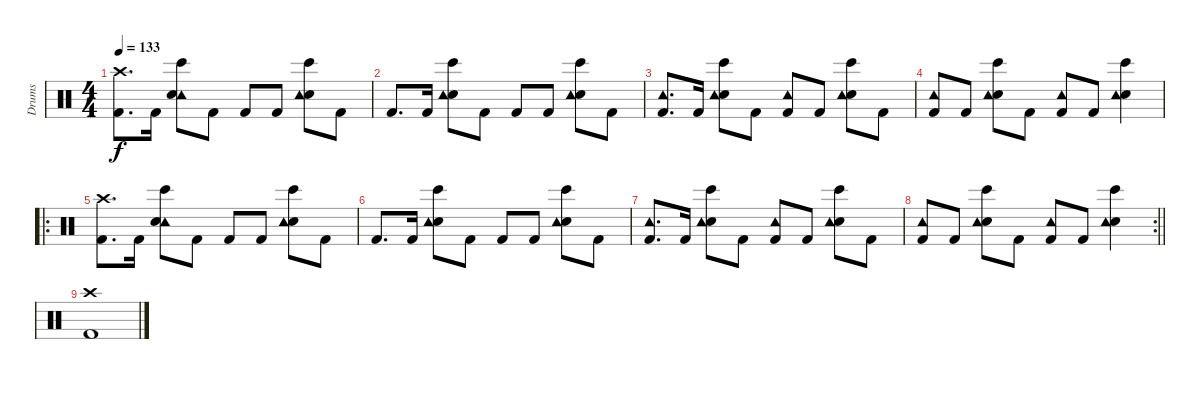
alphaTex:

\track ("Drums" "Drums") {instrument percussion}
\staff {score}
\articulation defaults
\ts (4 4)
\tempo 133
\clef neutral
\ks c
("Crash high (hit)" "Kick (hit) 2").8{d dy f} "Kick (hit) 2".16 ("Bongo High (hit)" "Tambourine (hit)" "Electric Snare (hit)").8 "Kick (hit) 2".8 "Kick (hit) 2".8 "Kick (hit) 2".8 ("Electric Snare (hit)" "Tambourine (hit)" "Bongo High (hit)").8 "Kick (hit) 2".8 |
"Kick (hit) 2".8{d} "Kick (hit) 2".16 ("Electric Snare (hit)" "Tambourine (hit)" "Bongo High (hit)").8 "Kick (hit) 2".8 "Kick (hit) 2".8 "Kick (hit) 2".8 ("Electric Snare (hit)" "Tambourine (hit)" "Bongo High (hit)").8 "Kick (hit) 2".8 |
("Tambourine (hit)" "Kick (hit) 2").8{d} "Kick (hit) 2".16 ("Electric Snare (hit)" "Tambourine (hit)" "Bongo High (hit)").8 "Kick (hit) 2".8 ("Tambourine (hit)" "Kick (hit) 2").8 "Kick (hit) 2".8 ("Electric Snare (hit)" "Tambourine (hit)" "Bongo High (hit)").8 "Kick (hit) 2".8 |
("Tambourine (hit)" "Kick (hit) 2").8 "Kick (hit) 2".8 ("Electric Snare (hit)" "Tambourine (hit)" "Bongo High (hit)").8 "Kick (hit) 2".8 ("Tambourine (hit)" "Kick (hit) 2").8 "Kick (hit) 2".8 ("Electric Snare (hit)" "Bongo High (hit)" "Tambourine (hit)").4 |
\ro
("Crash high (hit)" "Kick (hit) 2").8{d} "Kick (hit) 2".16 ("Bongo High (hit)" "Tambourine (hit)" "Electric Snare (hit)").8 "Kick (hit) 2".8 "Kick (hit) 2".8 "Kick (hit) 2".8 ("Electric Snare (hit)" "Tambourine (hit)" "Bongo High (hit)").8 "Kick (hit) 2".8 |
"Kick (hit) 2".8{d} "Kick (hit) 2".16 ("Electric Snare (hit)" "Tambourine (hit)" "Bongo High (hit)").8 "Kick (hit) 2".8 "Kick (hit) 2".8 "Kick (hit) 2".8 ("Electric Snare (hit)" "Tambourine (hit)" "Bongo High (hit)").8 "Kick (hit) 2".8 |
("Tambourine (hit)" "Kick (hit) 2").8{d} "Kick (hit) 2".16 ("Electric Snare (hit)" "Tambourine (hit)" "Bongo High (hit)").8 "Kick (hit) 2".8 ("Tambourine (hit)" "Kick (hit) 2").8 "Kick (hit) 2".8 ("Electric Snare (hit)" "Tambourine (hit)" "Bongo High (hit)").8 "Kick (hit) 2".8 |
\rc 2
\barLineRight lightlight
("Tambourine (hit)" "Kick (hit) 2").8 "Kick (hit) 2".8 ("Electric Snare (hit)" "Tambourine (hit)" "Bongo High (hit)").8 "Kick (hit) 2".8 ("Tambourine (hit)" "Kick (hit) 2").8 "Kick (hit) 2".8 ("Electric Snare (hit)" "Bongo High (hit)" "Tambourine (hit)").4 |
("Crash high (hit)" "Kick (hit) 2").1
